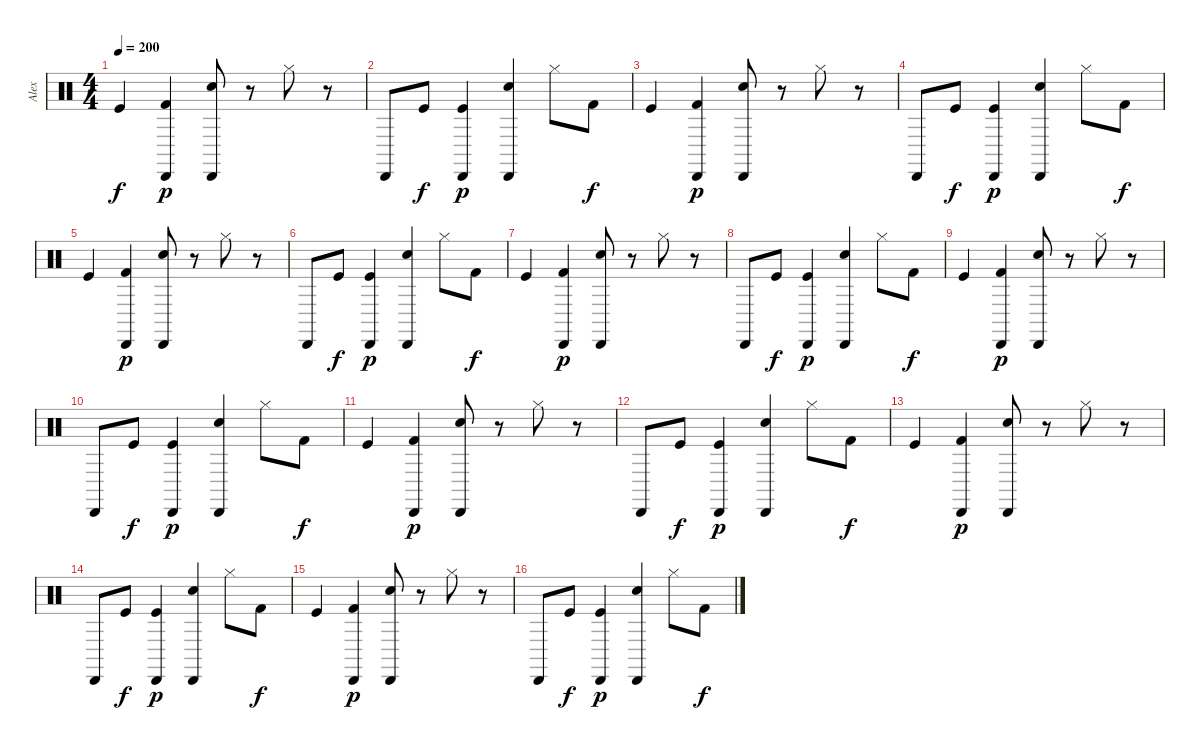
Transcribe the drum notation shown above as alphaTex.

\track ("Alex" "Alex") {instrument percussion}
\staff {score}
\articulation defaults
\ts (4 4)
\tempo 200
\clef neutral
\ks c "Kick (hit)".4{dy f}
("Kick (hit) 2" "Cabasa (hit)").4{dy p} ("Electric Snare (hit)" "Cabasa (hit)").8 r.8 "Hi-Hat (closed)".8 r.8 |
"Cabasa (hit)".8 "Kick (hit)".8{dy f} ("Kick (hit)" "Cabasa (hit)").4{dy p} ("Electric Snare (hit)" "Cabasa (hit)").4 "Hi-Hat (closed)".8 "Kick (hit) 2".8{dy f} |
"Kick (hit)".4 ("Kick (hit) 2" "Cabasa (hit)").4{dy p} ("Electric Snare (hit)" "Cabasa (hit)").8 r.8 "Hi-Hat (closed)".8 r.8 |
"Cabasa (hit)".8 "Kick (hit)".8{dy f} ("Kick (hit)" "Cabasa (hit)").4{dy p} ("Electric Snare (hit)" "Cabasa (hit)").4 "Hi-Hat (closed)".8 "Kick (hit) 2".8{dy f} |
"Kick (hit)".4 ("Kick (hit) 2" "Cabasa (hit)").4{dy p} ("Electric Snare (hit)" "Cabasa (hit)").8 r.8 "Hi-Hat (closed)".8 r.8 |
"Cabasa (hit)".8 "Kick (hit)".8{dy f} ("Kick (hit)" "Cabasa (hit)").4{dy p} ("Electric Snare (hit)" "Cabasa (hit)").4 "Hi-Hat (closed)".8 "Kick (hit) 2".8{dy f} |
"Kick (hit)".4 ("Kick (hit) 2" "Cabasa (hit)").4{dy p} ("Electric Snare (hit)" "Cabasa (hit)").8 r.8 "Hi-Hat (closed)".8 r.8 |
"Cabasa (hit)".8 "Kick (hit)".8{dy f} ("Kick (hit)" "Cabasa (hit)").4{dy p} ("Electric Snare (hit)" "Cabasa (hit)").4 "Hi-Hat (closed)".8 "Kick (hit) 2".8{dy f} |
"Kick (hit)".4 ("Kick (hit) 2" "Cabasa (hit)").4{dy p} ("Electric Snare (hit)" "Cabasa (hit)").8 r.8 "Hi-Hat (closed)".8 r.8 |
"Cabasa (hit)".8 "Kick (hit)".8{dy f} ("Kick (hit)" "Cabasa (hit)").4{dy p} ("Electric Snare (hit)" "Cabasa (hit)").4 "Hi-Hat (closed)".8 "Kick (hit) 2".8{dy f} |
"Kick (hit)".4 ("Kick (hit) 2" "Cabasa (hit)").4{dy p} ("Electric Snare (hit)" "Cabasa (hit)").8 r.8 "Hi-Hat (closed)".8 r.8 |
"Cabasa (hit)".8 "Kick (hit)".8{dy f} ("Kick (hit)" "Cabasa (hit)").4{dy p} ("Electric Snare (hit)" "Cabasa (hit)").4 "Hi-Hat (closed)".8 "Kick (hit) 2".8{dy f} |
"Kick (hit)".4 ("Kick (hit) 2" "Cabasa (hit)").4{dy p} ("Electric Snare (hit)" "Cabasa (hit)").8 r.8 "Hi-Hat (closed)".8 r.8 |
"Cabasa (hit)".8 "Kick (hit)".8{dy f} ("Kick (hit)" "Cabasa (hit)").4{dy p} ("Electric Snare (hit)" "Cabasa (hit)").4 "Hi-Hat (closed)".8 "Kick (hit) 2".8{dy f} |
"Kick (hit)".4 ("Kick (hit) 2" "Cabasa (hit)").4{dy p} ("Electric Snare (hit)" "Cabasa (hit)").8 r.8 "Hi-Hat (closed)".8 r.8 |
"Cabasa (hit)".8 "Kick (hit)".8{dy f} ("Kick (hit)" "Cabasa (hit)").4{dy p} ("Electric Snare (hit)" "Cabasa (hit)").4 "Hi-Hat (closed)".8 "Kick (hit) 2".8{dy f}
